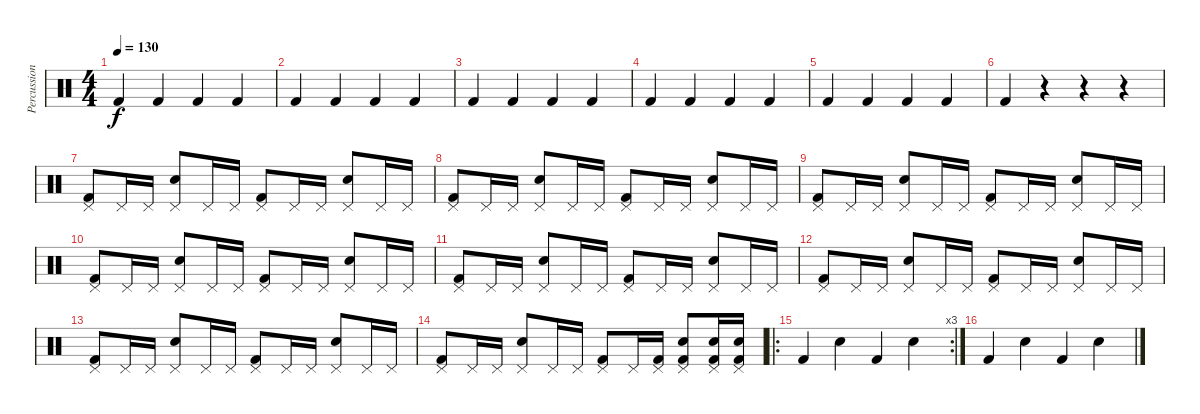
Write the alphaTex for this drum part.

\track ("Percussion" "Percussion") {instrument percussion}
\staff {score}
\articulation defaults
\ts (4 4)
\tempo 130
\clef neutral
\ks c "Kick (hit) 2".4{dy f} "Kick (hit) 2".4 "Kick (hit) 2".4 "Kick (hit) 2".4
|
"Kick (hit) 2".4 "Kick (hit) 2".4 "Kick (hit) 2".4 "Kick (hit) 2".4 |
"Kick (hit) 2".4 "Kick (hit) 2".4 "Kick (hit) 2".4 "Kick (hit) 2".4 |
"Kick (hit) 2".4 "Kick (hit) 2".4 "Kick (hit) 2".4 "Kick (hit) 2".4 |
"Kick (hit) 2".4 "Kick (hit) 2".4 "Kick (hit) 2".4 "Kick (hit) 2".4 |
"Kick (hit) 2".4 r.4 r.4 r.4 |
("Pedal Hi-Hat (hit)" "Kick (hit) 2").8 "Pedal Hi-Hat (hit)".16 "Pedal Hi-Hat (hit)".16 ("Pedal Hi-Hat (hit)" "Snare (hit) 2").8 "Pedal Hi-Hat (hit)".16 "Pedal Hi-Hat (hit)".16 ("Pedal Hi-Hat (hit)" "Kick (hit) 2").8 "Pedal Hi-Hat (hit)".16 "Pedal Hi-Hat (hit)".16 ("Pedal Hi-Hat (hit)" "Snare (hit) 2").8 "Pedal Hi-Hat (hit)".16 "Pedal Hi-Hat (hit)".16 |
("Pedal Hi-Hat (hit)" "Kick (hit) 2").8 "Pedal Hi-Hat (hit)".16 "Pedal Hi-Hat (hit)".16 ("Pedal Hi-Hat (hit)" "Snare (hit) 2").8 "Pedal Hi-Hat (hit)".16 "Pedal Hi-Hat (hit)".16 ("Pedal Hi-Hat (hit)" "Kick (hit) 2").8 "Pedal Hi-Hat (hit)".16 "Pedal Hi-Hat (hit)".16 ("Pedal Hi-Hat (hit)" "Snare (hit) 2").8 "Pedal Hi-Hat (hit)".16 "Pedal Hi-Hat (hit)".16 |
("Pedal Hi-Hat (hit)" "Kick (hit) 2").8 "Pedal Hi-Hat (hit)".16 "Pedal Hi-Hat (hit)".16 ("Pedal Hi-Hat (hit)" "Snare (hit) 2").8 "Pedal Hi-Hat (hit)".16 "Pedal Hi-Hat (hit)".16 ("Pedal Hi-Hat (hit)" "Kick (hit) 2").8 "Pedal Hi-Hat (hit)".16 "Pedal Hi-Hat (hit)".16 ("Pedal Hi-Hat (hit)" "Snare (hit) 2").8 "Pedal Hi-Hat (hit)".16 "Pedal Hi-Hat (hit)".16 |
("Pedal Hi-Hat (hit)" "Kick (hit) 2").8 "Pedal Hi-Hat (hit)".16 "Pedal Hi-Hat (hit)".16 ("Pedal Hi-Hat (hit)" "Snare (hit) 2").8 "Pedal Hi-Hat (hit)".16 "Pedal Hi-Hat (hit)".16 ("Pedal Hi-Hat (hit)" "Kick (hit) 2").8 "Pedal Hi-Hat (hit)".16 "Pedal Hi-Hat (hit)".16 ("Pedal Hi-Hat (hit)" "Snare (hit) 2").8 "Pedal Hi-Hat (hit)".16 "Pedal Hi-Hat (hit)".16 |
("Pedal Hi-Hat (hit)" "Kick (hit) 2").8 "Pedal Hi-Hat (hit)".16 "Pedal Hi-Hat (hit)".16 ("Pedal Hi-Hat (hit)" "Snare (hit) 2").8 "Pedal Hi-Hat (hit)".16 "Pedal Hi-Hat (hit)".16 ("Pedal Hi-Hat (hit)" "Kick (hit) 2").8 "Pedal Hi-Hat (hit)".16 "Pedal Hi-Hat (hit)".16 ("Pedal Hi-Hat (hit)" "Snare (hit) 2").8 "Pedal Hi-Hat (hit)".16 "Pedal Hi-Hat (hit)".16 |
("Pedal Hi-Hat (hit)" "Kick (hit) 2").8 "Pedal Hi-Hat (hit)".16 "Pedal Hi-Hat (hit)".16 ("Pedal Hi-Hat (hit)" "Snare (hit) 2").8 "Pedal Hi-Hat (hit)".16 "Pedal Hi-Hat (hit)".16 ("Pedal Hi-Hat (hit)" "Kick (hit) 2").8 "Pedal Hi-Hat (hit)".16 "Pedal Hi-Hat (hit)".16 ("Pedal Hi-Hat (hit)" "Snare (hit) 2").8 "Pedal Hi-Hat (hit)".16 "Pedal Hi-Hat (hit)".16 |
("Pedal Hi-Hat (hit)" "Kick (hit) 2").8 "Pedal Hi-Hat (hit)".16 "Pedal Hi-Hat (hit)".16 ("Pedal Hi-Hat (hit)" "Snare (hit) 2").8 "Pedal Hi-Hat (hit)".16 "Pedal Hi-Hat (hit)".16 ("Pedal Hi-Hat (hit)" "Kick (hit) 2").8 "Pedal Hi-Hat (hit)".16 "Pedal Hi-Hat (hit)".16 ("Pedal Hi-Hat (hit)" "Snare (hit) 2").8 "Pedal Hi-Hat (hit)".16 "Pedal Hi-Hat (hit)".16 |
("Pedal Hi-Hat (hit)" "Kick (hit) 2").8 "Pedal Hi-Hat (hit)".16 "Pedal Hi-Hat (hit)".16 ("Pedal Hi-Hat (hit)" "Snare (hit) 2").8 "Pedal Hi-Hat (hit)".16 "Pedal Hi-Hat (hit)".16 ("Pedal Hi-Hat (hit)" "Kick (hit) 2").8 "Pedal Hi-Hat (hit)".16 ("Pedal Hi-Hat (hit)" "Kick (hit) 2").16 ("Pedal Hi-Hat (hit)" "Snare (hit) 2" "Kick (hit) 2").8 ("Pedal Hi-Hat (hit)" "Snare (hit) 2" "Kick (hit) 2").16 ("Pedal Hi-Hat (hit)" "Snare (hit) 2" "Kick (hit) 2").16 |
\ro
\rc 3 "Kick (hit) 2".4 "Snare (hit) 2".4 "Kick (hit) 2".4 "Snare (hit) 2".4
|
"Kick (hit) 2".4 "Snare (hit) 2".4 "Kick (hit) 2".4 "Snare (hit) 2".4
